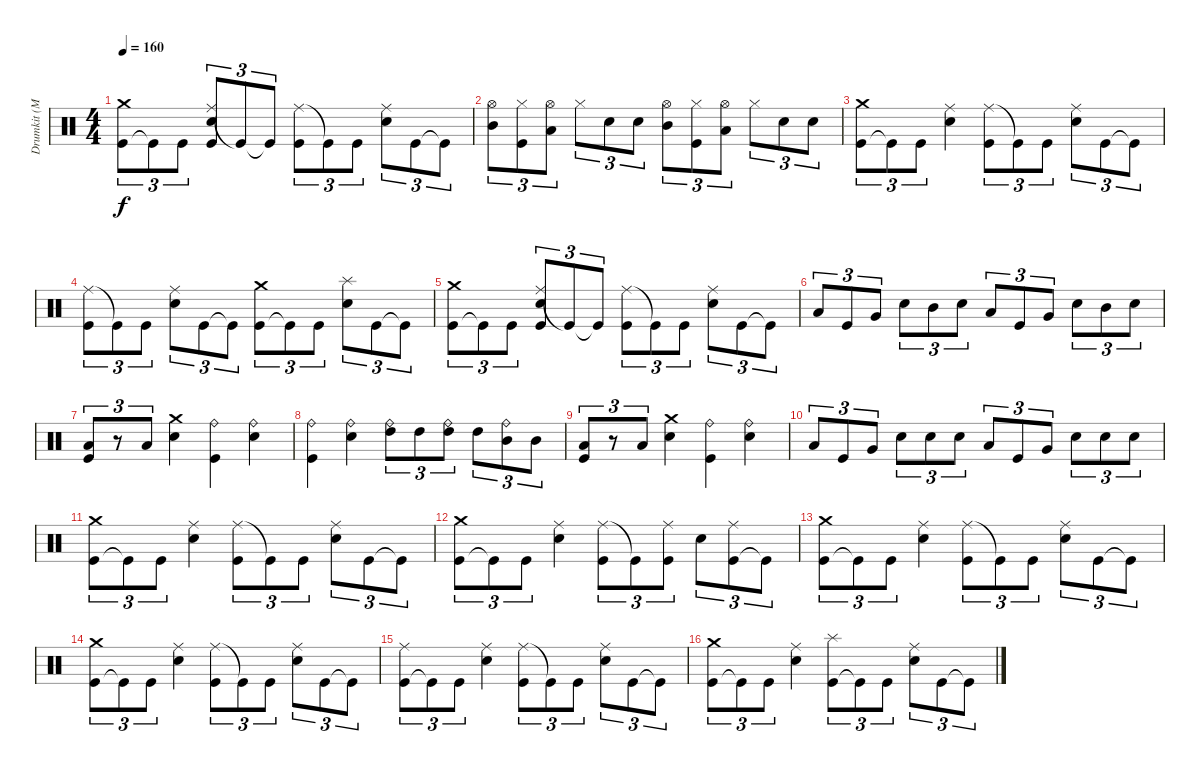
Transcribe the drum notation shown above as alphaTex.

\track ("Drumkit (McBrain)" "Drumkit (M") {instrument percussion}
\staff {score}
\articulation defaults
\ts (4 4)
\tempo 160
\clef neutral
\ks c
("Kick (hit)" "Crash medium (hit)").8{tu (3 2) dy f} "Kick (hit)"{t}.8{tu (3 2)} "Kick (hit)".8{tu (3 2)} ("Ride (middle)" "Snare (hit) 2" "Kick (hit)").8{tu (3 2)} "Kick (hit)"{t}.8{tu (3 2)} "Kick (hit)"{t}.8{tu (3 2)} ("Ride (middle)" "Kick (hit)").8{tu (3 2)} "Kick (hit)"{t}.8{tu (3 2)} "Kick (hit)".8{tu (3 2)} ("Ride (middle)" "Snare (hit) 2").8{tu (3 2)} "Kick (hit)".8{tu (3 2)} "Kick (hit)"{t}.8{tu (3 2)} |
("Mid Tom (hit)" "Hi-Hat (open)").8{tu (3 2)} ("Kick (hit)" "Hi-Hat (closed)").8{tu (3 2)} ("Low Tom (hit)" "Hi-Hat (open)").8{tu (3 2)} "Hi-Hat (closed)".8{tu (3 2)} "Snare (hit) 2".8{tu (3 2)} "Snare (hit) 2".8{tu (3 2)} ("Mid Tom (hit)" "Hi-Hat (open)").8{tu (3 2)} ("Kick (hit)" "Hi-Hat (closed)").8{tu (3 2)} ("Low Tom (hit)" "Hi-Hat (open)").8{tu (3 2)} "Hi-Hat (closed)".8{tu (3 2)} "Snare (hit) 2".8{tu (3 2)} "Snare (hit) 2".8{tu (3 2)} |
("Kick (hit)" "Crash medium (hit)").8{tu (3 2)} "Kick (hit)"{t}.8{tu (3 2)} "Kick (hit)".8{tu (3 2)} ("Ride (middle)" "Snare (hit) 2").4 ("Ride (middle)" "Kick (hit)").8{tu (3 2)} "Kick (hit)"{t}.8{tu (3 2)} "Kick (hit)".8{tu (3 2)} ("Ride (middle)" "Snare (hit) 2").8{tu (3 2)} "Kick (hit)".8{tu (3 2)} "Kick (hit)"{t}.8{tu (3 2)} |
("Ride (middle)" "Kick (hit)").8{tu (3 2)} "Kick (hit)"{t}.8{tu (3 2)} "Kick (hit)".8{tu (3 2)} ("Ride (middle)" "Snare (hit) 2").8{tu (3 2)} "Kick (hit)".8{tu (3 2)} "Kick (hit)"{t}.8{tu (3 2)} ("Kick (hit)" "Crash medium (hit)").8{tu (3 2)} "Kick (hit)"{t}.8{tu (3 2)} "Kick (hit)".8{tu (3 2)} ("Snare (hit) 2" "Splash (hit)").8{tu (3 2)} "Kick (hit)".8{tu (3 2)} "Kick (hit)"{t}.8{tu (3 2)} |
("Kick (hit)" "Crash medium (hit)").8{tu (3 2)} "Kick (hit)"{t}.8{tu (3 2)} "Kick (hit)".8{tu (3 2)} ("Ride (middle)" "Snare (hit) 2" "Kick (hit)").8{tu (3 2)} "Kick (hit)"{t}.8{tu (3 2)} "Kick (hit)"{t}.8{tu (3 2)} ("Ride (middle)" "Kick (hit)").8{tu (3 2)} "Kick (hit)"{t}.8{tu (3 2)} "Kick (hit)".8{tu (3 2)} ("Ride (middle)" "Snare (hit) 2").8{tu (3 2)} "Kick (hit)".8{tu (3 2)} "Kick (hit)"{t}.8{tu (3 2)} |
"Low Tom (hit)".8{tu (3 2)} "Kick (hit)".8{tu (3 2)} "Very Low Tom (hit)".8{tu (3 2)} "Snare (hit) 2".8{tu (3 2)} "Mid Tom (hit)".8{tu (3 2)} "Snare (hit) 2".8{tu (3 2)} "Low Tom (hit)".8{tu (3 2)} "Kick (hit)".8{tu (3 2)} "Very Low Tom (hit)".8{tu (3 2)} "Snare (hit) 2".8{tu (3 2)} "Mid Tom (hit)".8{tu (3 2)} "Snare (hit) 2".8{tu (3 2)} |
("Low Tom (hit)" "Kick (hit)").8{tu (3 2)} r.8{tu (3 2)} "Low Tom (hit)".8{tu (3 2)} ("Crash medium (hit)" "Snare (hit) 2").4 ("Ride (bell)" "Kick (hit)").4 ("Snare (hit) 2" "Ride (bell)").4 |
("Ride (bell)" "Kick (hit)").4 ("Snare (hit) 2" "Ride (bell)").4 ("High Tom (hit)" "Ride (bell)").8{tu (3 2)} "High Tom (hit)".8{tu (3 2)} ("High Tom (hit)" "Ride (bell)").8{tu (3 2)} "High Tom (hit)".8{tu (3 2)} ("Mid Tom (hit)" "Ride (bell)").8{tu (3 2)} "Mid Tom (hit)".8{tu (3 2)} |
("Low Tom (hit)" "Kick (hit)").8{tu (3 2)} r.8{tu (3 2)} "Low Tom (hit)".8{tu (3 2)} ("Crash medium (hit)" "Snare (hit) 2").4 ("Ride (bell)" "Kick (hit)").4 ("Snare (hit) 2" "Ride (bell)").4 |
"Low Tom (hit)".8{tu (3 2)} "Kick (hit)".8{tu (3 2)} "Very Low Tom (hit)".8{tu (3 2)} "Snare (hit) 2".8{tu (3 2)} "Snare (hit) 2".8{tu (3 2)} "Snare (hit) 2".8{tu (3 2)} "Low Tom (hit)".8{tu (3 2)} "Kick (hit)".8{tu (3 2)} "Very Low Tom (hit)".8{tu (3 2)} "Snare (hit) 2".8{tu (3 2)} "Snare (hit) 2".8{tu (3 2)} "Snare (hit) 2".8{tu (3 2)} |
("Kick (hit)" "Crash medium (hit)").8{tu (3 2)} "Kick (hit)"{t}.8{tu (3 2)} "Kick (hit)".8{tu (3 2)} ("Ride (middle)" "Snare (hit) 2").4 ("Ride (middle)" "Kick (hit)").8{tu (3 2)} "Kick (hit)"{t}.8{tu (3 2)} "Kick (hit)".8{tu (3 2)} ("Ride (middle)" "Snare (hit) 2").8{tu (3 2)} "Kick (hit)".8{tu (3 2)} "Kick (hit)"{t}.8{tu (3 2)} |
("Kick (hit)" "Crash medium (hit)").8{tu (3 2)} "Kick (hit)"{t}.8{tu (3 2)} "Kick (hit)".8{tu (3 2)} ("Ride (middle)" "Snare (hit) 2").4 ("Ride (middle)" "Kick (hit)").8{tu (3 2)} "Kick (hit)"{t}.8{tu (3 2)} ("Kick (hit)" "Ride (middle)").8{tu (3 2)} "Snare (hit) 2".8{tu (3 2)} ("Kick (hit)" "Ride (middle)").8{tu (3 2)} "Kick (hit)"{t}.8{tu (3 2)} |
("Kick (hit)" "Crash medium (hit)").8{tu (3 2)} "Kick (hit)"{t}.8{tu (3 2)} "Kick (hit)".8{tu (3 2)} ("Ride (middle)" "Snare (hit) 2").4 ("Ride (middle)" "Kick (hit)").8{tu (3 2)} "Kick (hit)"{t}.8{tu (3 2)} "Kick (hit)".8{tu (3 2)} ("Ride (middle)" "Snare (hit) 2").8{tu (3 2)} "Kick (hit)".8{tu (3 2)} "Kick (hit)"{t}.8{tu (3 2)} |
("Kick (hit)" "Crash medium (hit)").8{tu (3 2)} "Kick (hit)"{t}.8{tu (3 2)} "Kick (hit)".8{tu (3 2)} ("Ride (middle)" "Snare (hit) 2").4 ("Ride (middle)" "Kick (hit)").8{tu (3 2)} "Kick (hit)"{t}.8{tu (3 2)} "Kick (hit)".8{tu (3 2)} ("Ride (middle)" "Snare (hit) 2").8{tu (3 2)} "Kick (hit)".8{tu (3 2)} "Kick (hit)"{t}.8{tu (3 2)} |
("Kick (hit)" "Ride (middle)").8{tu (3 2)} "Kick (hit)"{t}.8{tu (3 2)} "Kick (hit)".8{tu (3 2)} ("Ride (middle)" "Snare (hit) 2").4 ("Ride (middle)" "Kick (hit)").8{tu (3 2)} "Kick (hit)"{t}.8{tu (3 2)} "Kick (hit)".8{tu (3 2)} ("Ride (middle)" "Snare (hit) 2").8{tu (3 2)} "Kick (hit)".8{tu (3 2)} "Kick (hit)"{t}.8{tu (3 2)} |
("Kick (hit)" "Crash medium (hit)").8{tu (3 2)} "Kick (hit)"{t}.8{tu (3 2)} "Kick (hit)".8{tu (3 2)} ("Ride (middle)" "Snare (hit) 2").4 ("Kick (hit)" "Splash (hit)").8{tu (3 2)} "Kick (hit)"{t}.8{tu (3 2)} "Kick (hit)".8{tu (3 2)} ("Ride (middle)" "Snare (hit) 2").8{tu (3 2)} "Kick (hit)".8{tu (3 2)} "Kick (hit)"{t}.8{tu (3 2)}
